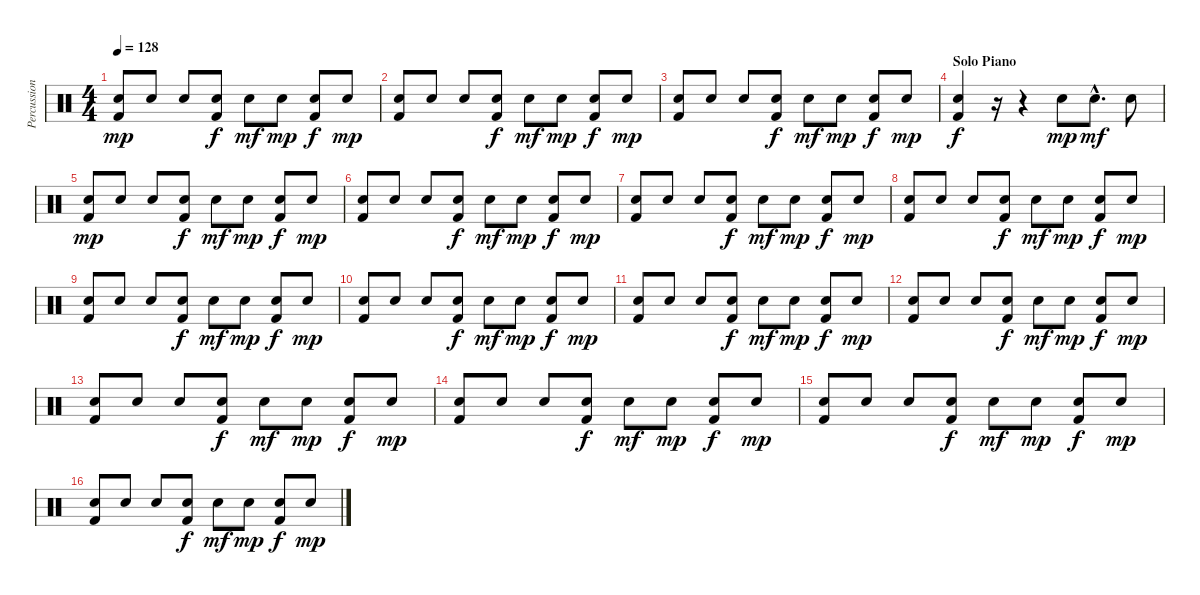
\track ("Percussions" "Percussion") {instrument percussion}
\staff {score}
\articulation defaults
\ts (4 4)
\tempo 128
\clef neutral
\ks c
("Electric Snare (hit)" "Kick (hit) 2").8{dy mp} "Electric Snare (hit)".8 "Electric Snare (hit)".8 ("Electric Snare (hit)" "Kick (hit) 2").8{dy f} "Electric Snare (hit)".8{dy mf} "Electric Snare (hit)".8{dy mp} ("Electric Snare (hit)" "Kick (hit) 2").8{dy f} "Electric Snare (hit)".8{dy mp} |
("Electric Snare (hit)" "Kick (hit) 2").8 "Electric Snare (hit)".8 "Electric Snare (hit)".8 ("Electric Snare (hit)" "Kick (hit) 2").8{dy f} "Electric Snare (hit)".8{dy mf} "Electric Snare (hit)".8{dy mp} ("Electric Snare (hit)" "Kick (hit) 2").8{dy f} "Electric Snare (hit)".8{dy mp} |
("Electric Snare (hit)" "Kick (hit) 2").8 "Electric Snare (hit)".8 "Electric Snare (hit)".8 ("Electric Snare (hit)" "Kick (hit) 2").8{dy f} "Electric Snare (hit)".8{dy mf} "Electric Snare (hit)".8{dy mp} ("Electric Snare (hit)" "Kick (hit) 2").8{dy f} "Electric Snare (hit)".8{dy mp} |
\section ("" "Solo Piano")
("Electric Snare (hit)" "Kick (hit) 2").4{dy f} r.16 r.4 "Electric Snare (hit)".8{dy mp} "Electric Snare (hit)"{hac}.8{d dy mf} "Electric Snare (hit)".8 |
("Electric Snare (hit)" "Kick (hit) 2").8{dy mp} "Electric Snare (hit)".8 "Electric Snare (hit)".8 ("Electric Snare (hit)" "Kick (hit) 2").8{dy f} "Electric Snare (hit)".8{dy mf} "Electric Snare (hit)".8{dy mp} ("Electric Snare (hit)" "Kick (hit) 2").8{dy f} "Electric Snare (hit)".8{dy mp} |
("Electric Snare (hit)" "Kick (hit) 2").8 "Electric Snare (hit)".8 "Electric Snare (hit)".8 ("Electric Snare (hit)" "Kick (hit) 2").8{dy f} "Electric Snare (hit)".8{dy mf} "Electric Snare (hit)".8{dy mp} ("Electric Snare (hit)" "Kick (hit) 2").8{dy f} "Electric Snare (hit)".8{dy mp} |
("Electric Snare (hit)" "Kick (hit) 2").8 "Electric Snare (hit)".8 "Electric Snare (hit)".8 ("Electric Snare (hit)" "Kick (hit) 2").8{dy f} "Electric Snare (hit)".8{dy mf} "Electric Snare (hit)".8{dy mp} ("Electric Snare (hit)" "Kick (hit) 2").8{dy f} "Electric Snare (hit)".8{dy mp} |
("Electric Snare (hit)" "Kick (hit) 2").8 "Electric Snare (hit)".8 "Electric Snare (hit)".8 ("Electric Snare (hit)" "Kick (hit) 2").8{dy f} "Electric Snare (hit)".8{dy mf} "Electric Snare (hit)".8{dy mp} ("Electric Snare (hit)" "Kick (hit) 2").8{dy f} "Electric Snare (hit)".8{dy mp} |
("Electric Snare (hit)" "Kick (hit) 2").8 "Electric Snare (hit)".8 "Electric Snare (hit)".8 ("Electric Snare (hit)" "Kick (hit) 2").8{dy f} "Electric Snare (hit)".8{dy mf} "Electric Snare (hit)".8{dy mp} ("Electric Snare (hit)" "Kick (hit) 2").8{dy f} "Electric Snare (hit)".8{dy mp} |
("Electric Snare (hit)" "Kick (hit) 2").8 "Electric Snare (hit)".8 "Electric Snare (hit)".8 ("Electric Snare (hit)" "Kick (hit) 2").8{dy f} "Electric Snare (hit)".8{dy mf} "Electric Snare (hit)".8{dy mp} ("Electric Snare (hit)" "Kick (hit) 2").8{dy f} "Electric Snare (hit)".8{dy mp} |
("Electric Snare (hit)" "Kick (hit) 2").8 "Electric Snare (hit)".8 "Electric Snare (hit)".8 ("Electric Snare (hit)" "Kick (hit) 2").8{dy f} "Electric Snare (hit)".8{dy mf} "Electric Snare (hit)".8{dy mp} ("Electric Snare (hit)" "Kick (hit) 2").8{dy f} "Electric Snare (hit)".8{dy mp} |
("Electric Snare (hit)" "Kick (hit) 2").8 "Electric Snare (hit)".8 "Electric Snare (hit)".8 ("Electric Snare (hit)" "Kick (hit) 2").8{dy f} "Electric Snare (hit)".8{dy mf} "Electric Snare (hit)".8{dy mp} ("Electric Snare (hit)" "Kick (hit) 2").8{dy f} "Electric Snare (hit)".8{dy mp} |
("Electric Snare (hit)" "Kick (hit) 2").8 "Electric Snare (hit)".8 "Electric Snare (hit)".8 ("Electric Snare (hit)" "Kick (hit) 2").8{dy f} "Electric Snare (hit)".8{dy mf} "Electric Snare (hit)".8{dy mp} ("Electric Snare (hit)" "Kick (hit) 2").8{dy f} "Electric Snare (hit)".8{dy mp} |
("Electric Snare (hit)" "Kick (hit) 2").8 "Electric Snare (hit)".8 "Electric Snare (hit)".8 ("Electric Snare (hit)" "Kick (hit) 2").8{dy f} "Electric Snare (hit)".8{dy mf} "Electric Snare (hit)".8{dy mp} ("Electric Snare (hit)" "Kick (hit) 2").8{dy f} "Electric Snare (hit)".8{dy mp} |
("Electric Snare (hit)" "Kick (hit) 2").8 "Electric Snare (hit)".8 "Electric Snare (hit)".8 ("Electric Snare (hit)" "Kick (hit) 2").8{dy f} "Electric Snare (hit)".8{dy mf} "Electric Snare (hit)".8{dy mp} ("Electric Snare (hit)" "Kick (hit) 2").8{dy f} "Electric Snare (hit)".8{dy mp} |
("Electric Snare (hit)" "Kick (hit) 2").8 "Electric Snare (hit)".8 "Electric Snare (hit)".8 ("Electric Snare (hit)" "Kick (hit) 2").8{dy f} "Electric Snare (hit)".8{dy mf} "Electric Snare (hit)".8{dy mp} ("Electric Snare (hit)" "Kick (hit) 2").8{dy f} "Electric Snare (hit)".8{dy mp}
